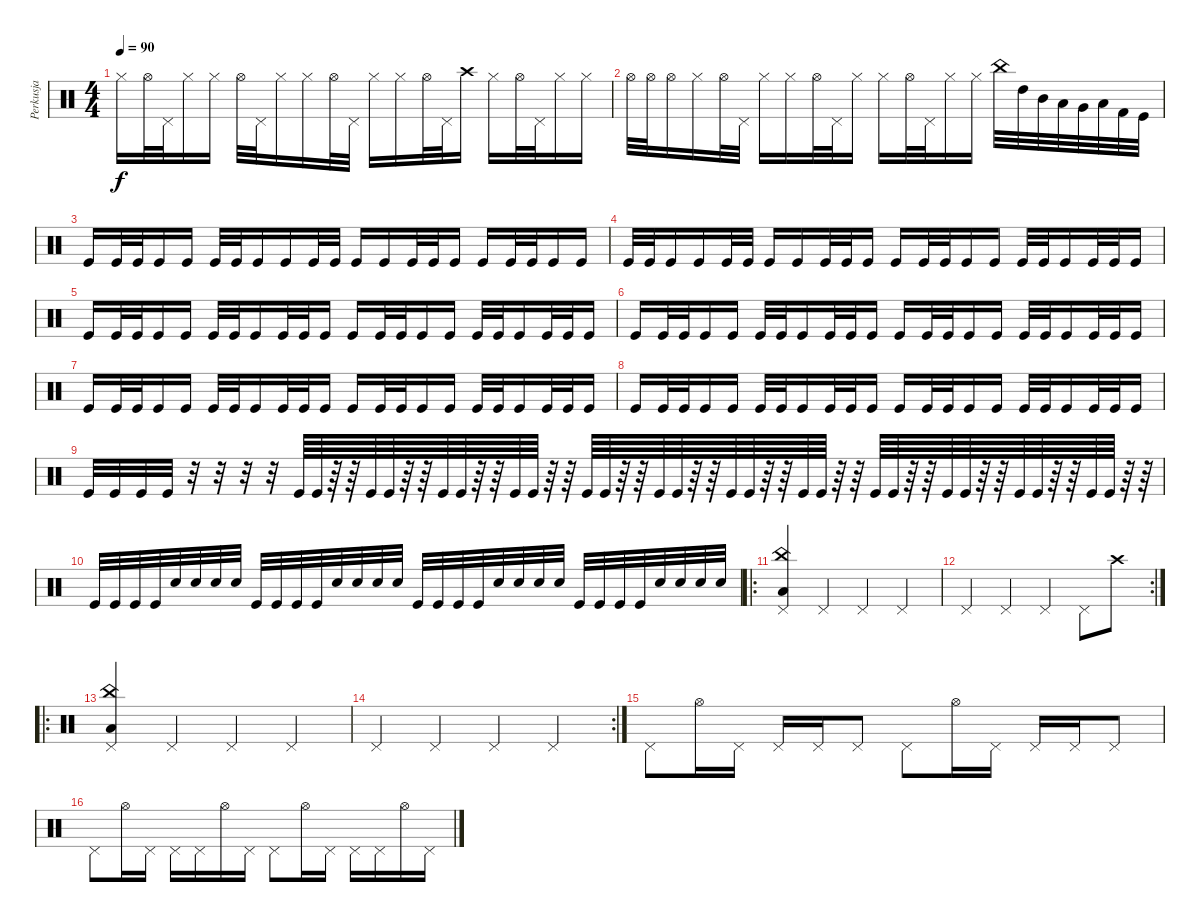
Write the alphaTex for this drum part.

\track ("Perkusja" "Perkusja") {instrument percussion}
\staff {score}
\articulation defaults
\ts (4 4)
\tempo 90
\clef neutral
\ks c "Hi-Hat (closed)".16{dy f} "Hi-Hat (open)".32 "Pedal Hi-Hat (hit)".32 "Hi-Hat (closed)".16 "Hi-Hat (closed)".16 "Hi-Hat (open)".32 "Pedal Hi-Hat (hit)".32 "Hi-Hat (closed)".16 "Hi-Hat (closed)".16 "Hi-Hat (open)".32 "Pedal Hi-Hat (hit)".32 "Hi-Hat (closed)".16 "Hi-Hat (closed)".16 "Hi-Hat (open)".32 "Pedal Hi-Hat (hit)".32 "Crash high (hit)".16 "Hi-Hat (closed)".16 "Hi-Hat (open)".32 "Pedal Hi-Hat (hit)".32 "Hi-Hat (closed)".16 "Hi-Hat (closed)".16
|
"Hi-Hat (open)".32 "Hi-Hat (open)".32 "Hi-Hat (open)".16 "Hi-Hat (closed)".16 "Hi-Hat (open)".32 "Pedal Hi-Hat (hit)".32 "Hi-Hat (closed)".16 "Hi-Hat (closed)".16 "Hi-Hat (open)".32 "Pedal Hi-Hat (hit)".32 "Hi-Hat (closed)".16 "Hi-Hat (closed)".16 "Hi-Hat (open)".32 "Pedal Hi-Hat (hit)".32 "Hi-Hat (closed)".16 "Hi-Hat (closed)".16 "China (hit)".32 "High Tom (hit)".32 "Mid Tom (hit)".32 "Low Tom (hit)".32 "Very Low Tom (hit)".32 "Low Floor Tom (hit)".32 "Kick (hit) 2".32 "Kick (hit)".32 |
"Kick (hit)".16 "Kick (hit)".32 "Kick (hit)".32 "Kick (hit)".16 "Kick (hit)".16 "Kick (hit)".32 "Kick (hit)".32 "Kick (hit)".16 "Kick (hit)".16 "Kick (hit)".32 "Kick (hit)".32 "Kick (hit)".16 "Kick (hit)".16 "Kick (hit)".32 "Kick (hit)".32 "Kick (hit)".16 "Kick (hit)".16 "Kick (hit)".32 "Kick (hit)".32 "Kick (hit)".16 "Kick (hit)".16 |
"Kick (hit)".32 "Kick (hit)".32 "Kick (hit)".16 "Kick (hit)".16 "Kick (hit)".32 "Kick (hit)".32 "Kick (hit)".16 "Kick (hit)".16 "Kick (hit)".32 "Kick (hit)".32 "Kick (hit)".16 "Kick (hit)".16 "Kick (hit)".32 "Kick (hit)".32 "Kick (hit)".16 "Kick (hit)".16 "Kick (hit)".32 "Kick (hit)".32 "Kick (hit)".16 "Kick (hit)".32 "Kick (hit)".32 "Kick (hit)".16 |
"Kick (hit)".16 "Kick (hit)".32 "Kick (hit)".32 "Kick (hit)".16 "Kick (hit)".16 "Kick (hit)".32 "Kick (hit)".32 "Kick (hit)".16 "Kick (hit)".32 "Kick (hit)".32 "Kick (hit)".16 "Kick (hit)".16 "Kick (hit)".32 "Kick (hit)".32 "Kick (hit)".16 "Kick (hit)".16 "Kick (hit)".32 "Kick (hit)".32 "Kick (hit)".16 "Kick (hit)".32 "Kick (hit)".32 "Kick (hit)".16 |
"Kick (hit)".16 "Kick (hit)".32 "Kick (hit)".32 "Kick (hit)".16 "Kick (hit)".16 "Kick (hit)".32 "Kick (hit)".32 "Kick (hit)".16 "Kick (hit)".32 "Kick (hit)".32 "Kick (hit)".16 "Kick (hit)".16 "Kick (hit)".32 "Kick (hit)".32 "Kick (hit)".16 "Kick (hit)".16 "Kick (hit)".32 "Kick (hit)".32 "Kick (hit)".16 "Kick (hit)".32 "Kick (hit)".32 "Kick (hit)".16 |
"Kick (hit)".16 "Kick (hit)".32 "Kick (hit)".32 "Kick (hit)".16 "Kick (hit)".16 "Kick (hit)".32 "Kick (hit)".32 "Kick (hit)".16 "Kick (hit)".32 "Kick (hit)".32 "Kick (hit)".16 "Kick (hit)".16 "Kick (hit)".32 "Kick (hit)".32 "Kick (hit)".16 "Kick (hit)".16 "Kick (hit)".32 "Kick (hit)".32 "Kick (hit)".16 "Kick (hit)".32 "Kick (hit)".32 "Kick (hit)".16 |
"Kick (hit)".16 "Kick (hit)".32 "Kick (hit)".32 "Kick (hit)".16 "Kick (hit)".16 "Kick (hit)".32 "Kick (hit)".32 "Kick (hit)".16 "Kick (hit)".32 "Kick (hit)".32 "Kick (hit)".16 "Kick (hit)".16 "Kick (hit)".32 "Kick (hit)".32 "Kick (hit)".16 "Kick (hit)".16 "Kick (hit)".32 "Kick (hit)".32 "Kick (hit)".16 "Kick (hit)".32 "Kick (hit)".32 "Kick (hit)".16 |
"Kick (hit)".32 "Kick (hit)".32 "Kick (hit)".32 "Kick (hit)".32 r.32 r.32 r.32 r.32 "Kick (hit)".64 "Kick (hit)".64 r.64 r.64 "Kick (hit)".64 "Kick (hit)".64 r.64 r.64 "Kick (hit)".64 "Kick (hit)".64 r.64 r.64 "Kick (hit)".64 "Kick (hit)".64 r.64 r.64 "Kick (hit)".64 "Kick (hit)".64 r.64 r.64 "Kick (hit)".64 "Kick (hit)".64 r.64 r.64 "Kick (hit)".64 "Kick (hit)".64 r.64 r.64 "Kick (hit)".64 "Kick (hit)".64 r.64 r.64 "Kick (hit)".64 "Kick (hit)".64 r.64 r.64 "Kick (hit)".64 "Kick (hit)".64 r.64 r.64 "Kick (hit)".64 "Kick (hit)".64 r.64 r.64 "Kick (hit)".64 "Kick (hit)".64 r.64 r.64 |
"Kick (hit)".32 "Kick (hit)".32 "Kick (hit)".32 "Kick (hit)".32 "Snare (hit) 2".32 "Snare (hit) 2".32 "Snare (hit) 2".32 "Snare (hit) 2".32 "Kick (hit)".32 "Kick (hit)".32 "Kick (hit)".32 "Kick (hit)".32 "Snare (hit) 2".32 "Snare (hit) 2".32 "Snare (hit) 2".32 "Snare (hit) 2".32 "Kick (hit)".32 "Kick (hit)".32 "Kick (hit)".32 "Kick (hit)".32 "Snare (hit) 2".32 "Snare (hit) 2".32 "Snare (hit) 2".32 "Snare (hit) 2".32 "Kick (hit)".32 "Kick (hit)".32 "Kick (hit)".32 "Kick (hit)".32 "Electric Snare (hit)".32 "Electric Snare (hit)".32 "Electric Snare (hit)".32 "Electric Snare (hit)".32 |
\ro
("Pedal Hi-Hat (hit)" "China (hit)" "Low Tom (hit)").4 "Pedal Hi-Hat (hit)".4 "Pedal Hi-Hat (hit)".4 "Pedal Hi-Hat (hit)".4 |
\rc 2 "Pedal Hi-Hat (hit)".4 "Pedal Hi-Hat (hit)".4 "Pedal Hi-Hat (hit)".4 "Pedal Hi-Hat (hit)".8 "Crash high (hit)".8
|
\ro
("China (hit)" "Pedal Hi-Hat (hit)" "Low Tom (hit)").4 "Pedal Hi-Hat (hit)".4 "Pedal Hi-Hat (hit)".4 "Pedal Hi-Hat (hit)".4 |
\rc 2 "Pedal Hi-Hat (hit)".4 "Pedal Hi-Hat (hit)".4 "Pedal Hi-Hat (hit)".4 "Pedal Hi-Hat (hit)".4
|
"Pedal Hi-Hat (hit)".8 "Hi-Hat (open)".16 "Pedal Hi-Hat (hit)".16 "Pedal Hi-Hat (hit)".16 "Pedal Hi-Hat (hit)".16 "Pedal Hi-Hat (hit)".8 "Pedal Hi-Hat (hit)".8 "Hi-Hat (open)".16 "Pedal Hi-Hat (hit)".16 "Pedal Hi-Hat (hit)".16 "Pedal Hi-Hat (hit)".16 "Pedal Hi-Hat (hit)".8 |
"Pedal Hi-Hat (hit)".8 "Hi-Hat (open)".16 "Pedal Hi-Hat (hit)".16 "Pedal Hi-Hat (hit)".16 "Pedal Hi-Hat (hit)".16 "Hi-Hat (open)".16 "Pedal Hi-Hat (hit)".16 "Pedal Hi-Hat (hit)".8 "Hi-Hat (open)".16 "Pedal Hi-Hat (hit)".16 "Pedal Hi-Hat (hit)".16 "Pedal Hi-Hat (hit)".16 "Hi-Hat (open)".16 "Pedal Hi-Hat (hit)".16
